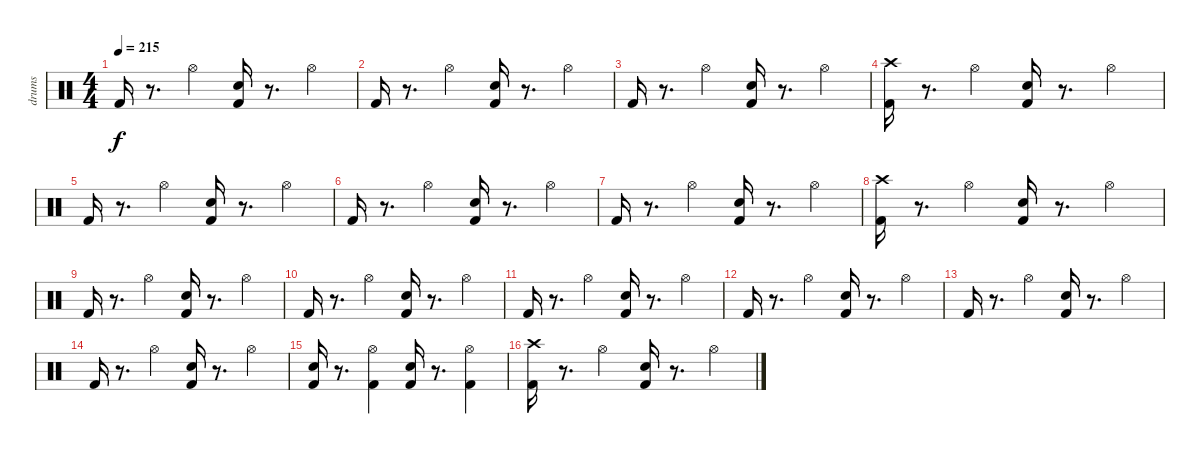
\track ("drums" "drums") {instrument percussion}
\staff {score}
\articulation defaults
\ts (4 4)
\tempo 215
\clef neutral
\ks c "Kick (hit) 2".16{dy f}
r.8{d} "Hi-Hat (open)".4 ("Electric Snare (hit)" "Kick (hit) 2").16 r.8{d} "Hi-Hat (open)".4 |
"Kick (hit) 2".16 r.8{d} "Hi-Hat (open)".4 ("Electric Snare (hit)" "Kick (hit) 2").16 r.8{d} "Hi-Hat (open)".4 |
"Kick (hit) 2".16 r.8{d} "Hi-Hat (open)".4 ("Electric Snare (hit)" "Kick (hit) 2").16 r.8{d} "Hi-Hat (open)".4 |
("Crash high (hit)" "Kick (hit) 2").16 r.8{d} "Hi-Hat (open)".4 ("Electric Snare (hit)" "Kick (hit) 2").16 r.8{d} "Hi-Hat (open)".4 |
"Kick (hit) 2".16 r.8{d} "Hi-Hat (open)".4 ("Electric Snare (hit)" "Kick (hit) 2").16 r.8{d} "Hi-Hat (open)".4 |
"Kick (hit) 2".16 r.8{d} "Hi-Hat (open)".4 ("Electric Snare (hit)" "Kick (hit) 2").16 r.8{d} "Hi-Hat (open)".4 |
"Kick (hit) 2".16 r.8{d} "Hi-Hat (open)".4 ("Electric Snare (hit)" "Kick (hit) 2").16 r.8{d} "Hi-Hat (open)".4 |
("Crash high (hit)" "Kick (hit) 2").16 r.8{d} "Hi-Hat (open)".4 ("Electric Snare (hit)" "Kick (hit) 2").16 r.8{d} "Hi-Hat (open)".4 |
"Kick (hit) 2".16 r.8{d} "Hi-Hat (open)".4 ("Electric Snare (hit)" "Kick (hit) 2").16 r.8{d} "Hi-Hat (open)".4 |
"Kick (hit) 2".16 r.8{d} "Hi-Hat (open)".4 ("Electric Snare (hit)" "Kick (hit) 2").16 r.8{d} "Hi-Hat (open)".4 |
"Kick (hit) 2".16 r.8{d} "Hi-Hat (open)".4 ("Electric Snare (hit)" "Kick (hit) 2").16 r.8{d} "Hi-Hat (open)".4 |
"Kick (hit) 2".16 r.8{d} "Hi-Hat (open)".4 ("Electric Snare (hit)" "Kick (hit) 2").16 r.8{d} "Hi-Hat (open)".4 |
"Kick (hit) 2".16 r.8{d} "Hi-Hat (open)".4 ("Electric Snare (hit)" "Kick (hit) 2").16 r.8{d} "Hi-Hat (open)".4 |
"Kick (hit) 2".16 r.8{d} "Hi-Hat (open)".4 ("Electric Snare (hit)" "Kick (hit) 2").16 r.8{d} "Hi-Hat (open)".4 |
("Electric Snare (hit)" "Kick (hit) 2").16 r.8{d} ("Kick (hit) 2" "Hi-Hat (open)").4 ("Electric Snare (hit)" "Kick (hit) 2").16 r.8{d} ("Hi-Hat (open)" "Kick (hit) 2").4 |
("Crash high (hit)" "Kick (hit) 2").16 r.8{d} "Hi-Hat (open)".4 ("Electric Snare (hit)" "Kick (hit) 2").16 r.8{d} "Hi-Hat (open)".4
